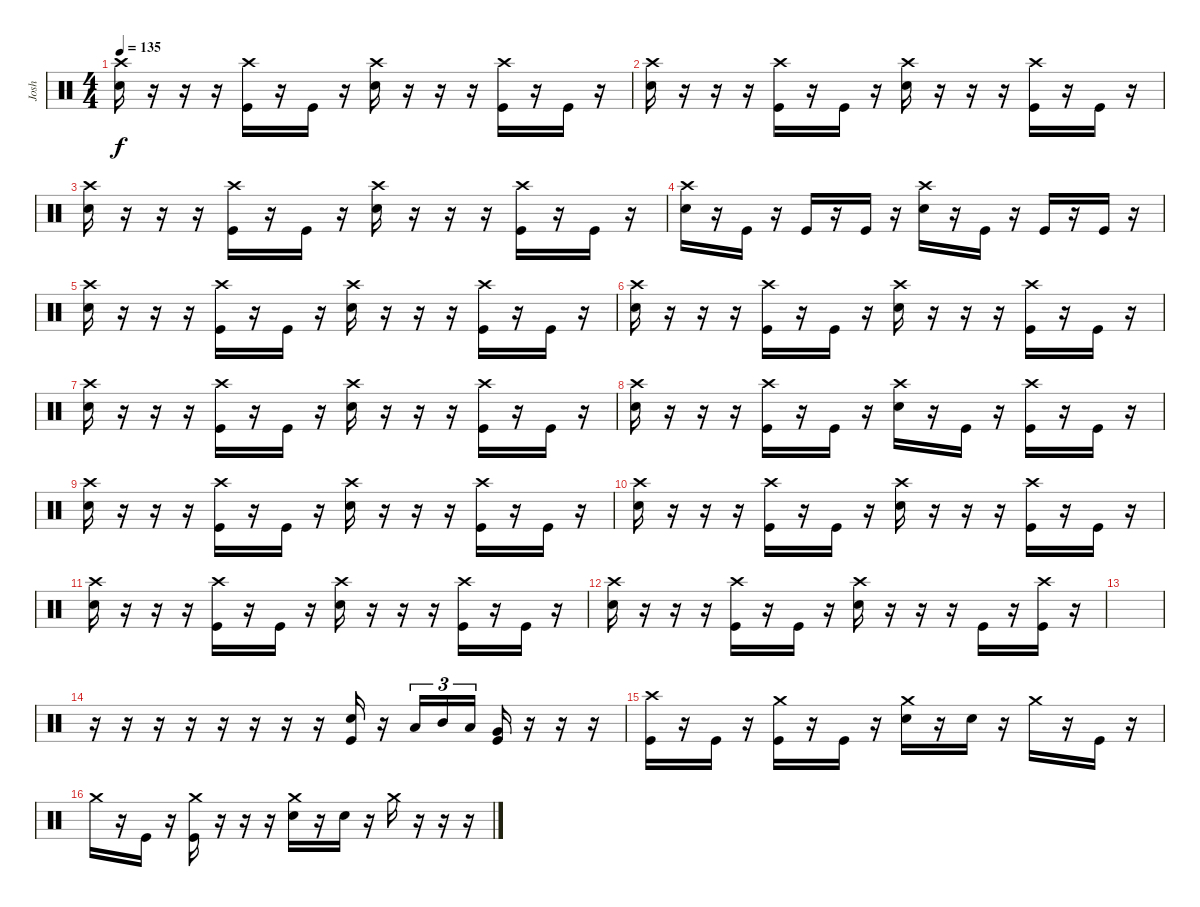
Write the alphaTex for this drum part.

\track ("Josh" "Josh") {instrument percussion}
\staff {score}
\articulation defaults
\ts (4 4)
\tempo 135
\clef neutral
\ks c
("Crash high (hit)" "Snare (hit) 2").16{dy f} r.16 r.16 r.16 ("Crash high (hit)" "Kick (hit)").16 r.16 "Kick (hit)".16 r.16 ("Crash high (hit)" "Snare (hit) 2").16 r.16 r.16 r.16 ("Crash high (hit)" "Kick (hit)").16 r.16 "Kick (hit)".16 r.16 |
("Crash high (hit)" "Snare (hit) 2").16 r.16 r.16 r.16 ("Crash high (hit)" "Kick (hit)").16 r.16 "Kick (hit)".16 r.16 ("Crash high (hit)" "Snare (hit) 2").16 r.16 r.16 r.16 ("Crash high (hit)" "Kick (hit)").16 r.16 "Kick (hit)".16 r.16 |
("Crash high (hit)" "Snare (hit) 2").16 r.16 r.16 r.16 ("Crash high (hit)" "Kick (hit)").16 r.16 "Kick (hit)".16 r.16 ("Crash high (hit)" "Snare (hit) 2").16 r.16 r.16 r.16 ("Crash high (hit)" "Kick (hit)").16 r.16 "Kick (hit)".16 r.16 |
("Crash high (hit)" "Snare (hit) 2").16 r.16 "Kick (hit)".16 r.16 "Kick (hit)".16 r.16 "Kick (hit)".16 r.16 ("Crash high (hit)" "Snare (hit) 2").16 r.16 "Kick (hit)".16 r.16 "Kick (hit)".16 r.16 "Kick (hit)".16 r.16 |
("Crash high (hit)" "Snare (hit) 2").16 r.16 r.16 r.16 ("Crash high (hit)" "Kick (hit)").16 r.16 "Kick (hit)".16 r.16 ("Crash high (hit)" "Snare (hit) 2").16 r.16 r.16 r.16 ("Crash high (hit)" "Kick (hit)").16 r.16 "Kick (hit)".16 r.16 |
("Crash high (hit)" "Snare (hit) 2").16 r.16 r.16 r.16 ("Crash high (hit)" "Kick (hit)").16 r.16 "Kick (hit)".16 r.16 ("Crash high (hit)" "Snare (hit) 2").16 r.16 r.16 r.16 ("Crash high (hit)" "Kick (hit)").16 r.16 "Kick (hit)".16 r.16 |
("Crash high (hit)" "Snare (hit) 2").16 r.16 r.16 r.16 ("Crash high (hit)" "Kick (hit)").16 r.16 "Kick (hit)".16 r.16 ("Crash high (hit)" "Snare (hit) 2").16 r.16 r.16 r.16 ("Crash high (hit)" "Kick (hit)").16 r.16 "Kick (hit)".16 r.16 |
("Crash high (hit)" "Snare (hit) 2").16 r.16 r.16 r.16 ("Crash high (hit)" "Kick (hit)").16 r.16 "Kick (hit)".16 r.16 ("Crash high (hit)" "Snare (hit) 2").16 r.16 "Kick (hit)".16 r.16 ("Crash high (hit)" "Kick (hit)").16 r.16 "Kick (hit)".16 r.16 |
("Crash high (hit)" "Snare (hit) 2").16 r.16 r.16 r.16 ("Crash high (hit)" "Kick (hit)").16 r.16 "Kick (hit)".16 r.16 ("Crash high (hit)" "Snare (hit) 2").16 r.16 r.16 r.16 ("Crash high (hit)" "Kick (hit)").16 r.16 "Kick (hit)".16 r.16 |
("Crash high (hit)" "Snare (hit) 2").16 r.16 r.16 r.16 ("Crash high (hit)" "Kick (hit)").16 r.16 "Kick (hit)".16 r.16 ("Crash high (hit)" "Snare (hit) 2").16 r.16 r.16 r.16 ("Crash high (hit)" "Kick (hit)").16 r.16 "Kick (hit)".16 r.16 |
("Crash high (hit)" "Snare (hit) 2").16 r.16 r.16 r.16 ("Crash high (hit)" "Kick (hit)").16 r.16 "Kick (hit)".16 r.16 ("Crash high (hit)" "Snare (hit) 2").16 r.16 r.16 r.16 ("Crash high (hit)" "Kick (hit)").16 r.16 "Kick (hit)".16 r.16 |
("Crash high (hit)" "Snare (hit) 2").16 r.16 r.16 r.16 ("Crash high (hit)" "Kick (hit)").16 r.16 "Kick (hit)".16 r.16 ("Crash high (hit)" "Snare (hit) 2").16 r.16 r.16 r.16 "Kick (hit)".16 r.16 ("Crash high (hit)" "Kick (hit)").16 r.16 |
|
r.16 r.16 r.16 r.16 r.16 r.16 r.16 r.16 ("Snare (hit) 2" "Kick (hit)").16 r.16 "Low Tom (hit)".16{tu (3 2)} "Mid Tom (hit)".16{tu (3 2)} "Low Tom (hit)".16{tu (3 2)} ("Very Low Tom (hit)" "Kick (hit)").16 r.16 r.16 r.16 |
("Crash high (hit)" "Kick (hit)").16 r.16 "Kick (hit)".16 r.16 ("Crash medium (hit)" "Kick (hit)").16 r.16 "Kick (hit)".16 r.16 ("Crash medium (hit)" "Snare (hit) 2").16 r.16 "Snare (hit) 2".16 r.16 "Crash medium (hit)".16 r.16 "Kick (hit)".16 r.16 |
"Crash medium (hit)".16 r.16 "Kick (hit)".16 r.16 ("Crash medium (hit)" "Kick (hit)").16 r.16 r.16 r.16 ("Crash medium (hit)" "Snare (hit) 2").16 r.16 "Snare (hit) 2".16 r.16 "Crash medium (hit)".16 r.16 r.16 r.16
